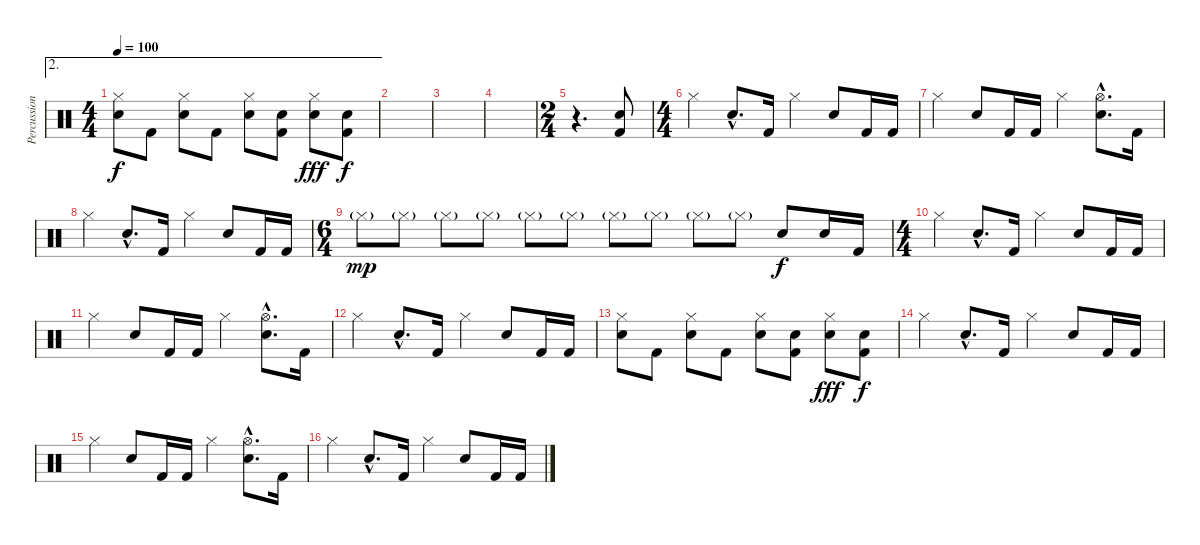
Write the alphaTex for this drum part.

\track ("Percussion" "Percussion") {instrument percussion}
\staff {score}
\articulation defaults
\ae 2
\ts (4 4)
\tempo 100
\clef neutral
\ks c
("Hi-Hat (closed)" "Electric Snare (hit)").8{dy f} "Kick (hit) 2".8 ("Hi-Hat (closed)" "Electric Snare (hit)").8 "Kick (hit) 2".8 ("Hi-Hat (closed)" "Electric Snare (hit)").8 ("Kick (hit) 2" "Electric Snare (hit)").8 ("Hi-Hat (closed)" "Electric Snare (hit)").8{dy fff} ("Kick (hit) 2" "Electric Snare (hit)").8{dy f} |
|
|
|
\ts (2 4)
r.4{d} ("Electric Snare (hit)" "Kick (hit) 2").8 |
\ts (4 4)
"Hi-Hat (closed)".4 "Electric Snare (hit)"{hac}.8{d} "Kick (hit) 2".16 "Hi-Hat (closed)".4 "Electric Snare (hit)".8 "Kick (hit) 2".16 "Kick (hit) 2".16 |
"Hi-Hat (closed)".4 "Electric Snare (hit)".8 "Kick (hit) 2".16 "Kick (hit) 2".16 "Hi-Hat (closed)".4 ("Electric Snare (hit)"{hac} "Hi-Hat (open)"{hac}).8{d} "Kick (hit) 2".16 |
"Hi-Hat (closed)".4 "Electric Snare (hit)"{hac}.8{d} "Kick (hit) 2".16 "Hi-Hat (closed)".4 "Electric Snare (hit)".8 "Kick (hit) 2".16 "Kick (hit) 2".16 |
\ts (6 4)
"Hi-Hat (closed)"{g}.8{dy mp} "Hi-Hat (closed)"{g}.8 "Hi-Hat (closed)"{g}.8 "Hi-Hat (closed)"{g}.8 "Hi-Hat (closed)"{g}.8 "Hi-Hat (closed)"{g}.8 "Hi-Hat (closed)"{g}.8 "Hi-Hat (closed)"{g}.8 "Hi-Hat (closed)"{g}.8 "Hi-Hat (closed)"{g}.8 "Electric Snare (hit)".8{dy f} "Electric Snare (hit)".16 "Kick (hit) 2".16 |
\ts (4 4)
"Hi-Hat (closed)".4 "Electric Snare (hit)"{hac}.8{d} "Kick (hit) 2".16 "Hi-Hat (closed)".4 "Electric Snare (hit)".8 "Kick (hit) 2".16 "Kick (hit) 2".16 |
"Hi-Hat (closed)".4 "Electric Snare (hit)".8 "Kick (hit) 2".16 "Kick (hit) 2".16 "Hi-Hat (closed)".4 ("Electric Snare (hit)"{hac} "Hi-Hat (open)"{hac}).8{d} "Kick (hit) 2".16 |
"Hi-Hat (closed)".4 "Electric Snare (hit)"{hac}.8{d} "Kick (hit) 2".16 "Hi-Hat (closed)".4 "Electric Snare (hit)".8 "Kick (hit) 2".16 "Kick (hit) 2".16 |
("Hi-Hat (closed)" "Electric Snare (hit)").8 "Kick (hit) 2".8 ("Hi-Hat (closed)" "Electric Snare (hit)").8 "Kick (hit) 2".8 ("Hi-Hat (closed)" "Electric Snare (hit)").8 ("Kick (hit) 2" "Electric Snare (hit)").8 ("Hi-Hat (closed)" "Electric Snare (hit)").8{dy fff} ("Kick (hit) 2" "Electric Snare (hit)").8{dy f} |
"Hi-Hat (closed)".4 "Electric Snare (hit)"{hac}.8{d} "Kick (hit) 2".16 "Hi-Hat (closed)".4 "Electric Snare (hit)".8 "Kick (hit) 2".16 "Kick (hit) 2".16 |
"Hi-Hat (closed)".4 "Electric Snare (hit)".8 "Kick (hit) 2".16 "Kick (hit) 2".16 "Hi-Hat (closed)".4 ("Electric Snare (hit)"{hac} "Hi-Hat (open)"{hac}).8{d} "Kick (hit) 2".16 |
"Hi-Hat (closed)".4 "Electric Snare (hit)"{hac}.8{d} "Kick (hit) 2".16 "Hi-Hat (closed)".4 "Electric Snare (hit)".8 "Kick (hit) 2".16 "Kick (hit) 2".16
